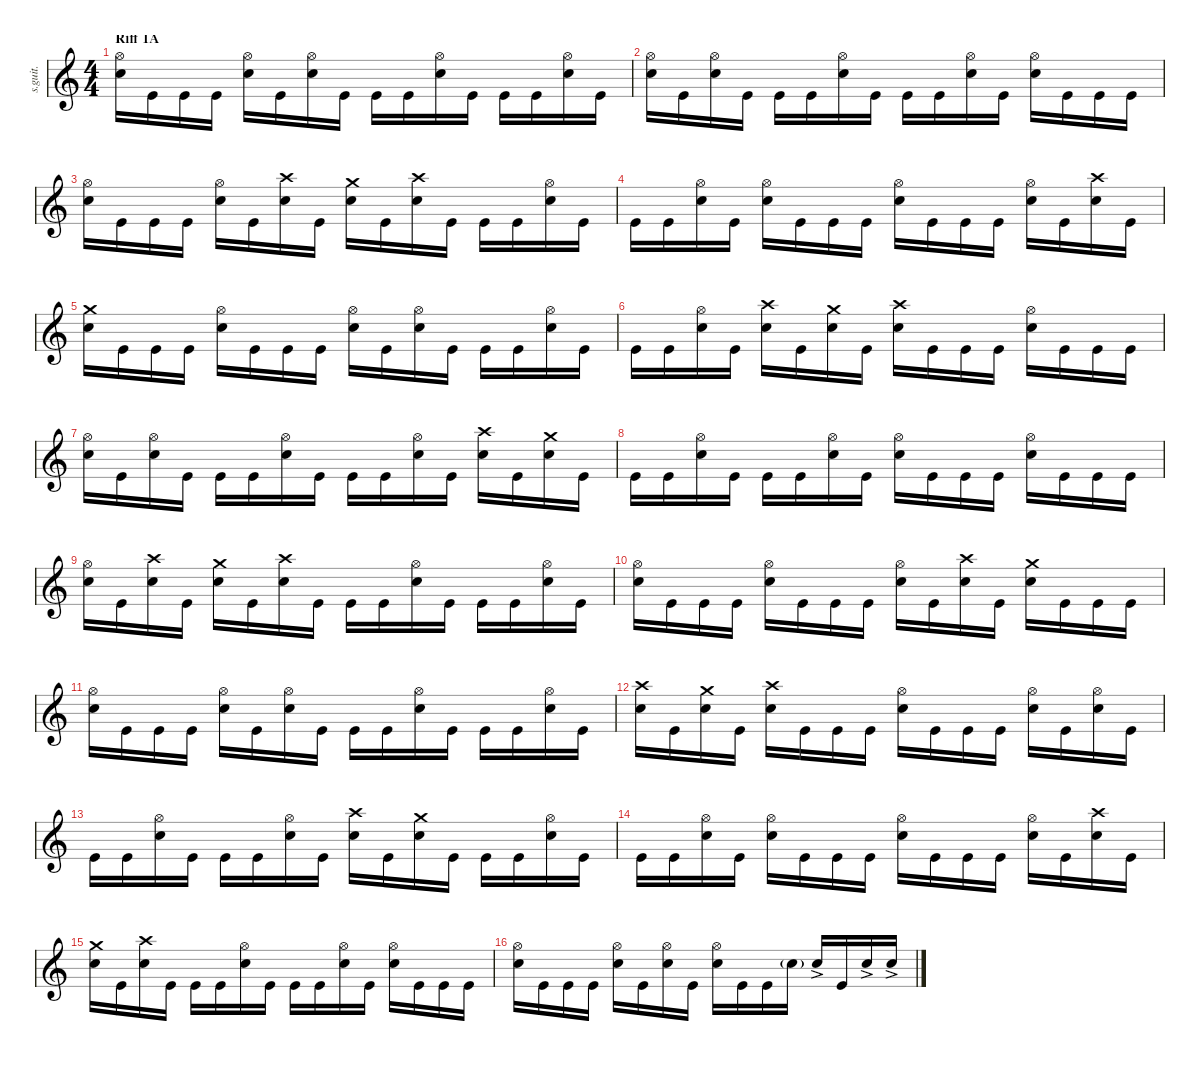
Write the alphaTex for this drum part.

\defaultSystemsLayout 4
\hideDynamics
\bracketExtendMode nobrackets
\track ("Drumkit" "s.guit.") {instrument percussion}
\staff {score}
\articulation defaults
\ts (4 4)
\beaming (8 2 2 2 2)
\section ("" "Riff 1A")
\tempo (133 hide)
\clef g2
\ks c
("Hi-Hat (open)" "Snare (hit) 2").16{lyrics (0 "") lyrics (1 "") lyrics (2 "") lyrics (3 "") lyrics (4 "") dy f} "Kick (hit)".16{lyrics (0 "") lyrics (1 "") lyrics (2 "") lyrics (3 "") lyrics (4 "")} "Kick (hit)".16{lyrics (0 "") lyrics (1 "") lyrics (2 "") lyrics (3 "") lyrics (4 "")} "Kick (hit)".16{lyrics (0 "") lyrics (1 "") lyrics (2 "") lyrics (3 "") lyrics (4 "")} ("Hi-Hat (open)" "Snare (hit) 2").16{lyrics (0 "") lyrics (1 "") lyrics (2 "") lyrics (3 "") lyrics (4 "")} "Kick (hit)".16{lyrics (0 "") lyrics (1 "") lyrics (2 "") lyrics (3 "") lyrics (4 "")} ("Hi-Hat (open)" "Snare (hit) 2").16{lyrics (0 "") lyrics (1 "") lyrics (2 "") lyrics (3 "") lyrics (4 "")} "Kick (hit)".16{lyrics (0 "") lyrics (1 "") lyrics (2 "") lyrics (3 "") lyrics (4 "")} "Kick (hit)".16{lyrics (0 "") lyrics (1 "") lyrics (2 "") lyrics (3 "") lyrics (4 "")} "Kick (hit)".16{lyrics (0 "") lyrics (1 "") lyrics (2 "") lyrics (3 "") lyrics (4 "")} ("Hi-Hat (open)" "Snare (hit) 2").16{lyrics (0 "") lyrics (1 "") lyrics (2 "") lyrics (3 "") lyrics (4 "")} "Kick (hit)".16{lyrics (0 "") lyrics (1 "") lyrics (2 "") lyrics (3 "") lyrics (4 "")} "Kick (hit)".16{lyrics (0 "") lyrics (1 "") lyrics (2 "") lyrics (3 "") lyrics (4 "")} "Kick (hit)".16{lyrics (0 "") lyrics (1 "") lyrics (2 "") lyrics (3 "") lyrics (4 "")} ("Hi-Hat (open)" "Snare (hit) 2").16{lyrics (0 "") lyrics (1 "") lyrics (2 "") lyrics (3 "") lyrics (4 "")} "Kick (hit)".16{lyrics (0 "") lyrics (1 "") lyrics (2 "") lyrics (3 "") lyrics (4 "")} |
("Hi-Hat (open)" "Snare (hit) 2").16{lyrics (0 "") lyrics (1 "") lyrics (2 "") lyrics (3 "") lyrics (4 "")} "Kick (hit)".16{lyrics (0 "") lyrics (1 "") lyrics (2 "") lyrics (3 "") lyrics (4 "")} ("Hi-Hat (open)" "Snare (hit) 2").16{lyrics (0 "") lyrics (1 "") lyrics (2 "") lyrics (3 "") lyrics (4 "")} "Kick (hit)".16{lyrics (0 "") lyrics (1 "") lyrics (2 "") lyrics (3 "") lyrics (4 "")} "Kick (hit)".16{lyrics (0 "") lyrics (1 "") lyrics (2 "") lyrics (3 "") lyrics (4 "")} "Kick (hit)".16{lyrics (0 "") lyrics (1 "") lyrics (2 "") lyrics (3 "") lyrics (4 "")} ("Hi-Hat (open)" "Snare (hit) 2").16{lyrics (0 "") lyrics (1 "") lyrics (2 "") lyrics (3 "") lyrics (4 "")} "Kick (hit)".16{lyrics (0 "") lyrics (1 "") lyrics (2 "") lyrics (3 "") lyrics (4 "")} "Kick (hit)".16{lyrics (0 "") lyrics (1 "") lyrics (2 "") lyrics (3 "") lyrics (4 "")} "Kick (hit)".16{lyrics (0 "") lyrics (1 "") lyrics (2 "") lyrics (3 "") lyrics (4 "")} ("Hi-Hat (open)" "Snare (hit) 2").16{lyrics (0 "") lyrics (1 "") lyrics (2 "") lyrics (3 "") lyrics (4 "")} "Kick (hit)".16{lyrics (0 "") lyrics (1 "") lyrics (2 "") lyrics (3 "") lyrics (4 "")} ("Hi-Hat (open)" "Snare (hit) 2").16{lyrics (0 "") lyrics (1 "") lyrics (2 "") lyrics (3 "") lyrics (4 "")} "Kick (hit)".16{lyrics (0 "") lyrics (1 "") lyrics (2 "") lyrics (3 "") lyrics (4 "")} "Kick (hit)".16{lyrics (0 "") lyrics (1 "") lyrics (2 "") lyrics (3 "") lyrics (4 "")} "Kick (hit)".16{lyrics (0 "") lyrics (1 "") lyrics (2 "") lyrics (3 "") lyrics (4 "")} |
("Hi-Hat (open)" "Snare (hit) 2").16{lyrics (0 "") lyrics (1 "") lyrics (2 "") lyrics (3 "") lyrics (4 "")} "Kick (hit)".16{lyrics (0 "") lyrics (1 "") lyrics (2 "") lyrics (3 "") lyrics (4 "")} "Kick (hit)".16{lyrics (0 "") lyrics (1 "") lyrics (2 "") lyrics (3 "") lyrics (4 "")} "Kick (hit)".16{lyrics (0 "") lyrics (1 "") lyrics (2 "") lyrics (3 "") lyrics (4 "")} ("Hi-Hat (open)" "Snare (hit) 2").16{lyrics (0 "") lyrics (1 "") lyrics (2 "") lyrics (3 "") lyrics (4 "")} "Kick (hit)".16{lyrics (0 "") lyrics (1 "") lyrics (2 "") lyrics (3 "") lyrics (4 "")} ("Crash high (hit)" "Snare (hit) 2").16{lyrics (0 "") lyrics (1 "") lyrics (2 "") lyrics (3 "") lyrics (4 "")} "Kick (hit)".16{lyrics (0 "") lyrics (1 "") lyrics (2 "") lyrics (3 "") lyrics (4 "")} ("Crash medium (hit)" "Snare (hit) 2").16{lyrics (0 "") lyrics (1 "") lyrics (2 "") lyrics (3 "") lyrics (4 "")} "Kick (hit)".16{lyrics (0 "") lyrics (1 "") lyrics (2 "") lyrics (3 "") lyrics (4 "")} ("Crash high (hit)" "Snare (hit) 2").16{lyrics (0 "") lyrics (1 "") lyrics (2 "") lyrics (3 "") lyrics (4 "")} "Kick (hit)".16{lyrics (0 "") lyrics (1 "") lyrics (2 "") lyrics (3 "") lyrics (4 "")} "Kick (hit)".16{lyrics (0 "") lyrics (1 "") lyrics (2 "") lyrics (3 "") lyrics (4 "")} "Kick (hit)".16{lyrics (0 "") lyrics (1 "") lyrics (2 "") lyrics (3 "") lyrics (4 "")} ("Hi-Hat (open)" "Snare (hit) 2").16{lyrics (0 "") lyrics (1 "") lyrics (2 "") lyrics (3 "") lyrics (4 "")} "Kick (hit)".16{lyrics (0 "") lyrics (1 "") lyrics (2 "") lyrics (3 "") lyrics (4 "")} |
"Kick (hit)".16{lyrics (0 "") lyrics (1 "") lyrics (2 "") lyrics (3 "") lyrics (4 "")} "Kick (hit)".16{lyrics (0 "") lyrics (1 "") lyrics (2 "") lyrics (3 "") lyrics (4 "")} ("Hi-Hat (open)" "Snare (hit) 2").16{lyrics (0 "") lyrics (1 "") lyrics (2 "") lyrics (3 "") lyrics (4 "")} "Kick (hit)".16{lyrics (0 "") lyrics (1 "") lyrics (2 "") lyrics (3 "") lyrics (4 "")} ("Hi-Hat (open)" "Snare (hit) 2").16{lyrics (0 "") lyrics (1 "") lyrics (2 "") lyrics (3 "") lyrics (4 "")} "Kick (hit)".16{lyrics (0 "") lyrics (1 "") lyrics (2 "") lyrics (3 "") lyrics (4 "")} "Kick (hit)".16{lyrics (0 "") lyrics (1 "") lyrics (2 "") lyrics (3 "") lyrics (4 "")} "Kick (hit)".16{lyrics (0 "") lyrics (1 "") lyrics (2 "") lyrics (3 "") lyrics (4 "")} ("Hi-Hat (open)" "Snare (hit) 2").16{lyrics (0 "") lyrics (1 "") lyrics (2 "") lyrics (3 "") lyrics (4 "")} "Kick (hit)".16{lyrics (0 "") lyrics (1 "") lyrics (2 "") lyrics (3 "") lyrics (4 "")} "Kick (hit)".16{lyrics (0 "") lyrics (1 "") lyrics (2 "") lyrics (3 "") lyrics (4 "")} "Kick (hit)".16{lyrics (0 "") lyrics (1 "") lyrics (2 "") lyrics (3 "") lyrics (4 "")} ("Hi-Hat (open)" "Snare (hit) 2").16{lyrics (0 "") lyrics (1 "") lyrics (2 "") lyrics (3 "") lyrics (4 "")} "Kick (hit)".16{lyrics (0 "") lyrics (1 "") lyrics (2 "") lyrics (3 "") lyrics (4 "")} ("Crash high (hit)" "Snare (hit) 2").16{lyrics (0 "") lyrics (1 "") lyrics (2 "") lyrics (3 "") lyrics (4 "")} "Kick (hit)".16{lyrics (0 "") lyrics (1 "") lyrics (2 "") lyrics (3 "") lyrics (4 "")} |
("Crash medium (hit)" "Snare (hit) 2").16{lyrics (0 "") lyrics (1 "") lyrics (2 "") lyrics (3 "") lyrics (4 "")} "Kick (hit)".16{lyrics (0 "") lyrics (1 "") lyrics (2 "") lyrics (3 "") lyrics (4 "")} "Kick (hit)".16{lyrics (0 "") lyrics (1 "") lyrics (2 "") lyrics (3 "") lyrics (4 "")} "Kick (hit)".16{lyrics (0 "") lyrics (1 "") lyrics (2 "") lyrics (3 "") lyrics (4 "")} ("Hi-Hat (open)" "Snare (hit) 2").16{lyrics (0 "") lyrics (1 "") lyrics (2 "") lyrics (3 "") lyrics (4 "")} "Kick (hit)".16{lyrics (0 "") lyrics (1 "") lyrics (2 "") lyrics (3 "") lyrics (4 "")} "Kick (hit)".16{lyrics (0 "") lyrics (1 "") lyrics (2 "") lyrics (3 "") lyrics (4 "")} "Kick (hit)".16{lyrics (0 "") lyrics (1 "") lyrics (2 "") lyrics (3 "") lyrics (4 "")} ("Hi-Hat (open)" "Snare (hit) 2").16{lyrics (0 "") lyrics (1 "") lyrics (2 "") lyrics (3 "") lyrics (4 "")} "Kick (hit)".16{lyrics (0 "") lyrics (1 "") lyrics (2 "") lyrics (3 "") lyrics (4 "")} ("Hi-Hat (open)" "Snare (hit) 2").16{lyrics (0 "") lyrics (1 "") lyrics (2 "") lyrics (3 "") lyrics (4 "")} "Kick (hit)".16{lyrics (0 "") lyrics (1 "") lyrics (2 "") lyrics (3 "") lyrics (4 "")} "Kick (hit)".16{lyrics (0 "") lyrics (1 "") lyrics (2 "") lyrics (3 "") lyrics (4 "")} "Kick (hit)".16{lyrics (0 "") lyrics (1 "") lyrics (2 "") lyrics (3 "") lyrics (4 "")} ("Hi-Hat (open)" "Snare (hit) 2").16{lyrics (0 "") lyrics (1 "") lyrics (2 "") lyrics (3 "") lyrics (4 "")} "Kick (hit)".16{lyrics (0 "") lyrics (1 "") lyrics (2 "") lyrics (3 "") lyrics (4 "")} |
"Kick (hit)".16{lyrics (0 "") lyrics (1 "") lyrics (2 "") lyrics (3 "") lyrics (4 "")} "Kick (hit)".16{lyrics (0 "") lyrics (1 "") lyrics (2 "") lyrics (3 "") lyrics (4 "")} ("Hi-Hat (open)" "Snare (hit) 2").16{lyrics (0 "") lyrics (1 "") lyrics (2 "") lyrics (3 "") lyrics (4 "")} "Kick (hit)".16{lyrics (0 "") lyrics (1 "") lyrics (2 "") lyrics (3 "") lyrics (4 "")} ("Crash high (hit)" "Snare (hit) 2").16{lyrics (0 "") lyrics (1 "") lyrics (2 "") lyrics (3 "") lyrics (4 "")} "Kick (hit)".16{lyrics (0 "") lyrics (1 "") lyrics (2 "") lyrics (3 "") lyrics (4 "")} ("Crash medium (hit)" "Snare (hit) 2").16{lyrics (0 "") lyrics (1 "") lyrics (2 "") lyrics (3 "") lyrics (4 "")} "Kick (hit)".16{lyrics (0 "") lyrics (1 "") lyrics (2 "") lyrics (3 "") lyrics (4 "")} ("Crash high (hit)" "Snare (hit) 2").16{lyrics (0 "") lyrics (1 "") lyrics (2 "") lyrics (3 "") lyrics (4 "")} "Kick (hit)".16{lyrics (0 "") lyrics (1 "") lyrics (2 "") lyrics (3 "") lyrics (4 "")} "Kick (hit)".16{lyrics (0 "") lyrics (1 "") lyrics (2 "") lyrics (3 "") lyrics (4 "")} "Kick (hit)".16{lyrics (0 "") lyrics (1 "") lyrics (2 "") lyrics (3 "") lyrics (4 "")} ("Hi-Hat (open)" "Snare (hit) 2").16{lyrics (0 "") lyrics (1 "") lyrics (2 "") lyrics (3 "") lyrics (4 "")} "Kick (hit)".16{lyrics (0 "") lyrics (1 "") lyrics (2 "") lyrics (3 "") lyrics (4 "")} "Kick (hit)".16{lyrics (0 "") lyrics (1 "") lyrics (2 "") lyrics (3 "") lyrics (4 "")} "Kick (hit)".16{lyrics (0 "") lyrics (1 "") lyrics (2 "") lyrics (3 "") lyrics (4 "")} |
("Hi-Hat (open)" "Snare (hit) 2").16{lyrics (0 "") lyrics (1 "") lyrics (2 "") lyrics (3 "") lyrics (4 "")} "Kick (hit)".16{lyrics (0 "") lyrics (1 "") lyrics (2 "") lyrics (3 "") lyrics (4 "")} ("Hi-Hat (open)" "Snare (hit) 2").16{lyrics (0 "") lyrics (1 "") lyrics (2 "") lyrics (3 "") lyrics (4 "")} "Kick (hit)".16{lyrics (0 "") lyrics (1 "") lyrics (2 "") lyrics (3 "") lyrics (4 "")} "Kick (hit)".16{lyrics (0 "") lyrics (1 "") lyrics (2 "") lyrics (3 "") lyrics (4 "")} "Kick (hit)".16{lyrics (0 "") lyrics (1 "") lyrics (2 "") lyrics (3 "") lyrics (4 "")} ("Hi-Hat (open)" "Snare (hit) 2").16{lyrics (0 "") lyrics (1 "") lyrics (2 "") lyrics (3 "") lyrics (4 "")} "Kick (hit)".16{lyrics (0 "") lyrics (1 "") lyrics (2 "") lyrics (3 "") lyrics (4 "")} "Kick (hit)".16{lyrics (0 "") lyrics (1 "") lyrics (2 "") lyrics (3 "") lyrics (4 "")} "Kick (hit)".16{lyrics (0 "") lyrics (1 "") lyrics (2 "") lyrics (3 "") lyrics (4 "")} ("Hi-Hat (open)" "Snare (hit) 2").16{lyrics (0 "") lyrics (1 "") lyrics (2 "") lyrics (3 "") lyrics (4 "")} "Kick (hit)".16{lyrics (0 "") lyrics (1 "") lyrics (2 "") lyrics (3 "") lyrics (4 "")} ("Crash high (hit)" "Snare (hit) 2").16{lyrics (0 "") lyrics (1 "") lyrics (2 "") lyrics (3 "") lyrics (4 "")} "Kick (hit)".16{lyrics (0 "") lyrics (1 "") lyrics (2 "") lyrics (3 "") lyrics (4 "")} ("Crash medium (hit)" "Snare (hit) 2").16{lyrics (0 "") lyrics (1 "") lyrics (2 "") lyrics (3 "") lyrics (4 "")} "Kick (hit)".16{lyrics (0 "") lyrics (1 "") lyrics (2 "") lyrics (3 "") lyrics (4 "")} |
"Kick (hit)".16{lyrics (0 "") lyrics (1 "") lyrics (2 "") lyrics (3 "") lyrics (4 "")} "Kick (hit)".16{lyrics (0 "") lyrics (1 "") lyrics (2 "") lyrics (3 "") lyrics (4 "")} ("Hi-Hat (open)" "Snare (hit) 2").16{lyrics (0 "") lyrics (1 "") lyrics (2 "") lyrics (3 "") lyrics (4 "")} "Kick (hit)".16{lyrics (0 "") lyrics (1 "") lyrics (2 "") lyrics (3 "") lyrics (4 "")} "Kick (hit)".16{lyrics (0 "") lyrics (1 "") lyrics (2 "") lyrics (3 "") lyrics (4 "")} "Kick (hit)".16{lyrics (0 "") lyrics (1 "") lyrics (2 "") lyrics (3 "") lyrics (4 "")} ("Hi-Hat (open)" "Snare (hit) 2").16{lyrics (0 "") lyrics (1 "") lyrics (2 "") lyrics (3 "") lyrics (4 "")} "Kick (hit)".16{lyrics (0 "") lyrics (1 "") lyrics (2 "") lyrics (3 "") lyrics (4 "")} ("Hi-Hat (open)" "Snare (hit) 2").16{lyrics (0 "") lyrics (1 "") lyrics (2 "") lyrics (3 "") lyrics (4 "")} "Kick (hit)".16{lyrics (0 "") lyrics (1 "") lyrics (2 "") lyrics (3 "") lyrics (4 "")} "Kick (hit)".16{lyrics (0 "") lyrics (1 "") lyrics (2 "") lyrics (3 "") lyrics (4 "")} "Kick (hit)".16{lyrics (0 "") lyrics (1 "") lyrics (2 "") lyrics (3 "") lyrics (4 "")} ("Hi-Hat (open)" "Snare (hit) 2").16{lyrics (0 "") lyrics (1 "") lyrics (2 "") lyrics (3 "") lyrics (4 "")} "Kick (hit)".16{lyrics (0 "") lyrics (1 "") lyrics (2 "") lyrics (3 "") lyrics (4 "")} "Kick (hit)".16{lyrics (0 "") lyrics (1 "") lyrics (2 "") lyrics (3 "") lyrics (4 "")} "Kick (hit)".16{lyrics (0 "") lyrics (1 "") lyrics (2 "") lyrics (3 "") lyrics (4 "")} |
("Hi-Hat (open)" "Snare (hit) 2").16{lyrics (0 "") lyrics (1 "") lyrics (2 "") lyrics (3 "") lyrics (4 "")} "Kick (hit)".16{lyrics (0 "") lyrics (1 "") lyrics (2 "") lyrics (3 "") lyrics (4 "")} ("Crash high (hit)" "Snare (hit) 2").16{lyrics (0 "") lyrics (1 "") lyrics (2 "") lyrics (3 "") lyrics (4 "")} "Kick (hit)".16{lyrics (0 "") lyrics (1 "") lyrics (2 "") lyrics (3 "") lyrics (4 "")} ("Crash medium (hit)" "Snare (hit) 2").16{lyrics (0 "") lyrics (1 "") lyrics (2 "") lyrics (3 "") lyrics (4 "")} "Kick (hit)".16{lyrics (0 "") lyrics (1 "") lyrics (2 "") lyrics (3 "") lyrics (4 "")} ("Crash high (hit)" "Snare (hit) 2").16{lyrics (0 "") lyrics (1 "") lyrics (2 "") lyrics (3 "") lyrics (4 "")} "Kick (hit)".16{lyrics (0 "") lyrics (1 "") lyrics (2 "") lyrics (3 "") lyrics (4 "")} "Kick (hit)".16{lyrics (0 "") lyrics (1 "") lyrics (2 "") lyrics (3 "") lyrics (4 "")} "Kick (hit)".16{lyrics (0 "") lyrics (1 "") lyrics (2 "") lyrics (3 "") lyrics (4 "")} ("Hi-Hat (open)" "Snare (hit) 2").16{lyrics (0 "") lyrics (1 "") lyrics (2 "") lyrics (3 "") lyrics (4 "")} "Kick (hit)".16{lyrics (0 "") lyrics (1 "") lyrics (2 "") lyrics (3 "") lyrics (4 "")} "Kick (hit)".16{lyrics (0 "") lyrics (1 "") lyrics (2 "") lyrics (3 "") lyrics (4 "")} "Kick (hit)".16{lyrics (0 "") lyrics (1 "") lyrics (2 "") lyrics (3 "") lyrics (4 "")} ("Hi-Hat (open)" "Snare (hit) 2").16{lyrics (0 "") lyrics (1 "") lyrics (2 "") lyrics (3 "") lyrics (4 "")} "Kick (hit)".16{lyrics (0 "") lyrics (1 "") lyrics (2 "") lyrics (3 "") lyrics (4 "")} |
("Hi-Hat (open)" "Snare (hit) 2").16{lyrics (0 "") lyrics (1 "") lyrics (2 "") lyrics (3 "") lyrics (4 "")} "Kick (hit)".16{lyrics (0 "") lyrics (1 "") lyrics (2 "") lyrics (3 "") lyrics (4 "")} "Kick (hit)".16{lyrics (0 "") lyrics (1 "") lyrics (2 "") lyrics (3 "") lyrics (4 "")} "Kick (hit)".16{lyrics (0 "") lyrics (1 "") lyrics (2 "") lyrics (3 "") lyrics (4 "")} ("Hi-Hat (open)" "Snare (hit) 2").16{lyrics (0 "") lyrics (1 "") lyrics (2 "") lyrics (3 "") lyrics (4 "")} "Kick (hit)".16{lyrics (0 "") lyrics (1 "") lyrics (2 "") lyrics (3 "") lyrics (4 "")} "Kick (hit)".16{lyrics (0 "") lyrics (1 "") lyrics (2 "") lyrics (3 "") lyrics (4 "")} "Kick (hit)".16{lyrics (0 "") lyrics (1 "") lyrics (2 "") lyrics (3 "") lyrics (4 "")} ("Hi-Hat (open)" "Snare (hit) 2").16{lyrics (0 "") lyrics (1 "") lyrics (2 "") lyrics (3 "") lyrics (4 "")} "Kick (hit)".16{lyrics (0 "") lyrics (1 "") lyrics (2 "") lyrics (3 "") lyrics (4 "")} ("Crash high (hit)" "Snare (hit) 2").16{lyrics (0 "") lyrics (1 "") lyrics (2 "") lyrics (3 "") lyrics (4 "")} "Kick (hit)".16{lyrics (0 "") lyrics (1 "") lyrics (2 "") lyrics (3 "") lyrics (4 "")} ("Crash medium (hit)" "Snare (hit) 2").16{lyrics (0 "") lyrics (1 "") lyrics (2 "") lyrics (3 "") lyrics (4 "")} "Kick (hit)".16{lyrics (0 "") lyrics (1 "") lyrics (2 "") lyrics (3 "") lyrics (4 "")} "Kick (hit)".16{lyrics (0 "") lyrics (1 "") lyrics (2 "") lyrics (3 "") lyrics (4 "")} "Kick (hit)".16{lyrics (0 "") lyrics (1 "") lyrics (2 "") lyrics (3 "") lyrics (4 "")} |
("Hi-Hat (open)" "Snare (hit) 2").16{lyrics (0 "") lyrics (1 "") lyrics (2 "") lyrics (3 "") lyrics (4 "")} "Kick (hit)".16{lyrics (0 "") lyrics (1 "") lyrics (2 "") lyrics (3 "") lyrics (4 "")} "Kick (hit)".16{lyrics (0 "") lyrics (1 "") lyrics (2 "") lyrics (3 "") lyrics (4 "")} "Kick (hit)".16{lyrics (0 "") lyrics (1 "") lyrics (2 "") lyrics (3 "") lyrics (4 "")} ("Hi-Hat (open)" "Snare (hit) 2").16{lyrics (0 "") lyrics (1 "") lyrics (2 "") lyrics (3 "") lyrics (4 "")} "Kick (hit)".16{lyrics (0 "") lyrics (1 "") lyrics (2 "") lyrics (3 "") lyrics (4 "")} ("Hi-Hat (open)" "Snare (hit) 2").16{lyrics (0 "") lyrics (1 "") lyrics (2 "") lyrics (3 "") lyrics (4 "")} "Kick (hit)".16{lyrics (0 "") lyrics (1 "") lyrics (2 "") lyrics (3 "") lyrics (4 "")} "Kick (hit)".16{lyrics (0 "") lyrics (1 "") lyrics (2 "") lyrics (3 "") lyrics (4 "")} "Kick (hit)".16{lyrics (0 "") lyrics (1 "") lyrics (2 "") lyrics (3 "") lyrics (4 "")} ("Hi-Hat (open)" "Snare (hit) 2").16{lyrics (0 "") lyrics (1 "") lyrics (2 "") lyrics (3 "") lyrics (4 "")} "Kick (hit)".16{lyrics (0 "") lyrics (1 "") lyrics (2 "") lyrics (3 "") lyrics (4 "")} "Kick (hit)".16{lyrics (0 "") lyrics (1 "") lyrics (2 "") lyrics (3 "") lyrics (4 "")} "Kick (hit)".16{lyrics (0 "") lyrics (1 "") lyrics (2 "") lyrics (3 "") lyrics (4 "")} ("Hi-Hat (open)" "Snare (hit) 2").16{lyrics (0 "") lyrics (1 "") lyrics (2 "") lyrics (3 "") lyrics (4 "")} "Kick (hit)".16{lyrics (0 "") lyrics (1 "") lyrics (2 "") lyrics (3 "") lyrics (4 "")} |
("Crash high (hit)" "Snare (hit) 2").16{lyrics (0 "") lyrics (1 "") lyrics (2 "") lyrics (3 "") lyrics (4 "")} "Kick (hit)".16{lyrics (0 "") lyrics (1 "") lyrics (2 "") lyrics (3 "") lyrics (4 "")} ("Crash medium (hit)" "Snare (hit) 2").16{lyrics (0 "") lyrics (1 "") lyrics (2 "") lyrics (3 "") lyrics (4 "")} "Kick (hit)".16{lyrics (0 "") lyrics (1 "") lyrics (2 "") lyrics (3 "") lyrics (4 "")} ("Crash high (hit)" "Snare (hit) 2").16{lyrics (0 "") lyrics (1 "") lyrics (2 "") lyrics (3 "") lyrics (4 "")} "Kick (hit)".16{lyrics (0 "") lyrics (1 "") lyrics (2 "") lyrics (3 "") lyrics (4 "")} "Kick (hit)".16{lyrics (0 "") lyrics (1 "") lyrics (2 "") lyrics (3 "") lyrics (4 "")} "Kick (hit)".16{lyrics (0 "") lyrics (1 "") lyrics (2 "") lyrics (3 "") lyrics (4 "")} ("Hi-Hat (open)" "Snare (hit) 2").16{lyrics (0 "") lyrics (1 "") lyrics (2 "") lyrics (3 "") lyrics (4 "")} "Kick (hit)".16{lyrics (0 "") lyrics (1 "") lyrics (2 "") lyrics (3 "") lyrics (4 "")} "Kick (hit)".16{lyrics (0 "") lyrics (1 "") lyrics (2 "") lyrics (3 "") lyrics (4 "")} "Kick (hit)".16{lyrics (0 "") lyrics (1 "") lyrics (2 "") lyrics (3 "") lyrics (4 "")} ("Hi-Hat (open)" "Snare (hit) 2").16{lyrics (0 "") lyrics (1 "") lyrics (2 "") lyrics (3 "") lyrics (4 "")} "Kick (hit)".16{lyrics (0 "") lyrics (1 "") lyrics (2 "") lyrics (3 "") lyrics (4 "")} ("Hi-Hat (open)" "Snare (hit) 2").16{lyrics (0 "") lyrics (1 "") lyrics (2 "") lyrics (3 "") lyrics (4 "")} "Kick (hit)".16{lyrics (0 "") lyrics (1 "") lyrics (2 "") lyrics (3 "") lyrics (4 "")} |
"Kick (hit)".16{lyrics (0 "") lyrics (1 "") lyrics (2 "") lyrics (3 "") lyrics (4 "")} "Kick (hit)".16{lyrics (0 "") lyrics (1 "") lyrics (2 "") lyrics (3 "") lyrics (4 "")} ("Hi-Hat (open)" "Snare (hit) 2").16{lyrics (0 "") lyrics (1 "") lyrics (2 "") lyrics (3 "") lyrics (4 "")} "Kick (hit)".16{lyrics (0 "") lyrics (1 "") lyrics (2 "") lyrics (3 "") lyrics (4 "")} "Kick (hit)".16{lyrics (0 "") lyrics (1 "") lyrics (2 "") lyrics (3 "") lyrics (4 "")} "Kick (hit)".16{lyrics (0 "") lyrics (1 "") lyrics (2 "") lyrics (3 "") lyrics (4 "")} ("Hi-Hat (open)" "Snare (hit) 2").16{lyrics (0 "") lyrics (1 "") lyrics (2 "") lyrics (3 "") lyrics (4 "")} "Kick (hit)".16{lyrics (0 "") lyrics (1 "") lyrics (2 "") lyrics (3 "") lyrics (4 "")} ("Crash high (hit)" "Snare (hit) 2").16{lyrics (0 "") lyrics (1 "") lyrics (2 "") lyrics (3 "") lyrics (4 "")} "Kick (hit)".16{lyrics (0 "") lyrics (1 "") lyrics (2 "") lyrics (3 "") lyrics (4 "")} ("Crash medium (hit)" "Snare (hit) 2").16{lyrics (0 "") lyrics (1 "") lyrics (2 "") lyrics (3 "") lyrics (4 "")} "Kick (hit)".16{lyrics (0 "") lyrics (1 "") lyrics (2 "") lyrics (3 "") lyrics (4 "")} "Kick (hit)".16{lyrics (0 "") lyrics (1 "") lyrics (2 "") lyrics (3 "") lyrics (4 "")} "Kick (hit)".16{lyrics (0 "") lyrics (1 "") lyrics (2 "") lyrics (3 "") lyrics (4 "")} ("Hi-Hat (open)" "Snare (hit) 2").16{lyrics (0 "") lyrics (1 "") lyrics (2 "") lyrics (3 "") lyrics (4 "")} "Kick (hit)".16{lyrics (0 "") lyrics (1 "") lyrics (2 "") lyrics (3 "") lyrics (4 "")} |
"Kick (hit)".16{lyrics (0 "") lyrics (1 "") lyrics (2 "") lyrics (3 "") lyrics (4 "")} "Kick (hit)".16{lyrics (0 "") lyrics (1 "") lyrics (2 "") lyrics (3 "") lyrics (4 "")} ("Hi-Hat (open)" "Snare (hit) 2").16{lyrics (0 "") lyrics (1 "") lyrics (2 "") lyrics (3 "") lyrics (4 "")} "Kick (hit)".16{lyrics (0 "") lyrics (1 "") lyrics (2 "") lyrics (3 "") lyrics (4 "")} ("Hi-Hat (open)" "Snare (hit) 2").16{lyrics (0 "") lyrics (1 "") lyrics (2 "") lyrics (3 "") lyrics (4 "")} "Kick (hit)".16{lyrics (0 "") lyrics (1 "") lyrics (2 "") lyrics (3 "") lyrics (4 "")} "Kick (hit)".16{lyrics (0 "") lyrics (1 "") lyrics (2 "") lyrics (3 "") lyrics (4 "")} "Kick (hit)".16{lyrics (0 "") lyrics (1 "") lyrics (2 "") lyrics (3 "") lyrics (4 "")} ("Hi-Hat (open)" "Snare (hit) 2").16{lyrics (0 "") lyrics (1 "") lyrics (2 "") lyrics (3 "") lyrics (4 "")} "Kick (hit)".16{lyrics (0 "") lyrics (1 "") lyrics (2 "") lyrics (3 "") lyrics (4 "")} "Kick (hit)".16{lyrics (0 "") lyrics (1 "") lyrics (2 "") lyrics (3 "") lyrics (4 "")} "Kick (hit)".16{lyrics (0 "") lyrics (1 "") lyrics (2 "") lyrics (3 "") lyrics (4 "")} ("Hi-Hat (open)" "Snare (hit) 2").16{lyrics (0 "") lyrics (1 "") lyrics (2 "") lyrics (3 "") lyrics (4 "")} "Kick (hit)".16{lyrics (0 "") lyrics (1 "") lyrics (2 "") lyrics (3 "") lyrics (4 "")} ("Crash high (hit)" "Snare (hit) 2").16{lyrics (0 "") lyrics (1 "") lyrics (2 "") lyrics (3 "") lyrics (4 "")} "Kick (hit)".16{lyrics (0 "") lyrics (1 "") lyrics (2 "") lyrics (3 "") lyrics (4 "")} |
("Crash medium (hit)" "Snare (hit) 2").16{lyrics (0 "") lyrics (1 "") lyrics (2 "") lyrics (3 "") lyrics (4 "")} "Kick (hit)".16{lyrics (0 "") lyrics (1 "") lyrics (2 "") lyrics (3 "") lyrics (4 "")} ("Crash high (hit)" "Snare (hit) 2").16{lyrics (0 "") lyrics (1 "") lyrics (2 "") lyrics (3 "") lyrics (4 "")} "Kick (hit)".16{lyrics (0 "") lyrics (1 "") lyrics (2 "") lyrics (3 "") lyrics (4 "")} "Kick (hit)".16{lyrics (0 "") lyrics (1 "") lyrics (2 "") lyrics (3 "") lyrics (4 "")} "Kick (hit)".16{lyrics (0 "") lyrics (1 "") lyrics (2 "") lyrics (3 "") lyrics (4 "")} ("Hi-Hat (open)" "Snare (hit) 2").16{lyrics (0 "") lyrics (1 "") lyrics (2 "") lyrics (3 "") lyrics (4 "")} "Kick (hit)".16{lyrics (0 "") lyrics (1 "") lyrics (2 "") lyrics (3 "") lyrics (4 "")} "Kick (hit)".16{lyrics (0 "") lyrics (1 "") lyrics (2 "") lyrics (3 "") lyrics (4 "")} "Kick (hit)".16{lyrics (0 "") lyrics (1 "") lyrics (2 "") lyrics (3 "") lyrics (4 "")} ("Hi-Hat (open)" "Snare (hit) 2").16{lyrics (0 "") lyrics (1 "") lyrics (2 "") lyrics (3 "") lyrics (4 "")} "Kick (hit)".16{lyrics (0 "") lyrics (1 "") lyrics (2 "") lyrics (3 "") lyrics (4 "")} ("Hi-Hat (open)" "Snare (hit) 2").16{lyrics (0 "") lyrics (1 "") lyrics (2 "") lyrics (3 "") lyrics (4 "")} "Kick (hit)".16{lyrics (0 "") lyrics (1 "") lyrics (2 "") lyrics (3 "") lyrics (4 "")} "Kick (hit)".16{lyrics (0 "") lyrics (1 "") lyrics (2 "") lyrics (3 "") lyrics (4 "")} "Kick (hit)".16{lyrics (0 "") lyrics (1 "") lyrics (2 "") lyrics (3 "") lyrics (4 "")} |
("Hi-Hat (open)" "Snare (hit) 2").16{lyrics (0 "") lyrics (1 "") lyrics (2 "") lyrics (3 "") lyrics (4 "")} "Kick (hit)".16{lyrics (0 "") lyrics (1 "") lyrics (2 "") lyrics (3 "") lyrics (4 "")} "Kick (hit)".16{lyrics (0 "") lyrics (1 "") lyrics (2 "") lyrics (3 "") lyrics (4 "")} "Kick (hit)".16{lyrics (0 "") lyrics (1 "") lyrics (2 "") lyrics (3 "") lyrics (4 "")} ("Hi-Hat (open)" "Snare (hit) 2").16{lyrics (0 "") lyrics (1 "") lyrics (2 "") lyrics (3 "") lyrics (4 "")} "Kick (hit)".16{lyrics (0 "") lyrics (1 "") lyrics (2 "") lyrics (3 "") lyrics (4 "")} ("Hi-Hat (open)" "Snare (hit) 2").16{lyrics (0 "") lyrics (1 "") lyrics (2 "") lyrics (3 "") lyrics (4 "")} "Kick (hit)".16{lyrics (0 "") lyrics (1 "") lyrics (2 "") lyrics (3 "") lyrics (4 "")} ("Hi-Hat (open)" "Snare (hit) 2").16{lyrics (0 "") lyrics (1 "") lyrics (2 "") lyrics (3 "") lyrics (4 "")} "Kick (hit)".16{lyrics (0 "") lyrics (1 "") lyrics (2 "") lyrics (3 "") lyrics (4 "")} "Kick (hit)".16{lyrics (0 "") lyrics (1 "") lyrics (2 "") lyrics (3 "") lyrics (4 "")} "Snare (hit) 2"{g}.16{lyrics (0 "") lyrics (1 "") lyrics (2 "") lyrics (3 "") lyrics (4 "")} "Snare (hit) 2"{ac}.16{lyrics (0 "") lyrics (1 "") lyrics (2 "") lyrics (3 "") lyrics (4 "")} "Kick (hit)".16{lyrics (0 "") lyrics (1 "") lyrics (2 "") lyrics (3 "") lyrics (4 "")} "Snare (hit) 2"{ac}.16{lyrics (0 "") lyrics (1 "") lyrics (2 "") lyrics (3 "") lyrics (4 "")} "Snare (hit) 2"{ac}.16{lyrics (0 "") lyrics (1 "") lyrics (2 "") lyrics (3 "") lyrics (4 "")}
